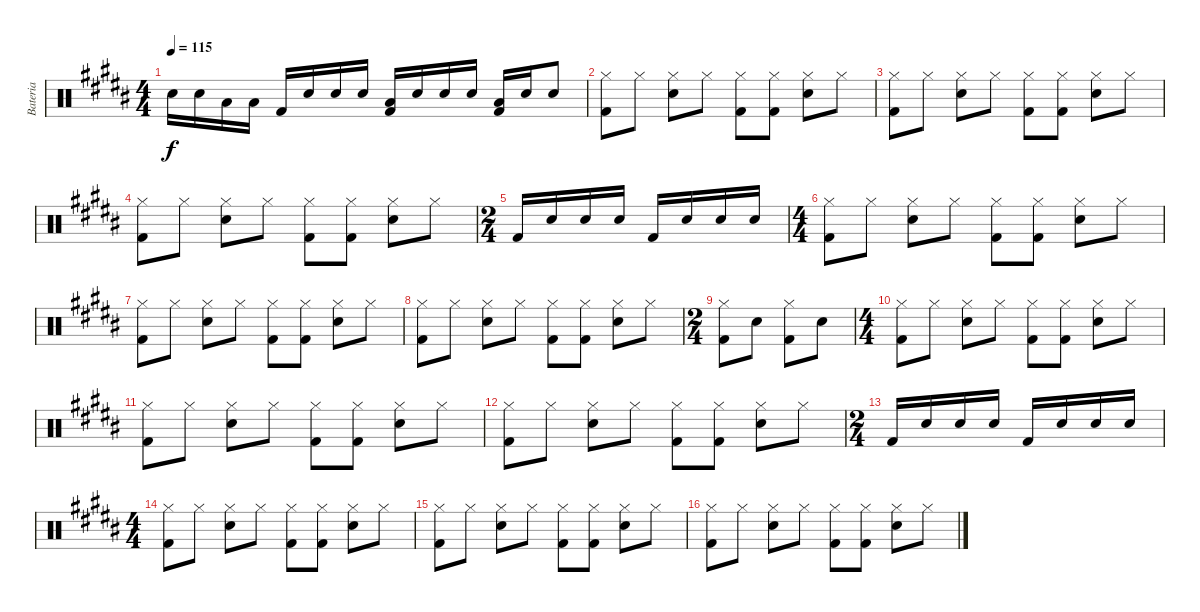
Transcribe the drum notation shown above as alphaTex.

\track ("Bateria" "Bateria") {instrument percussion}
\staff {score}
\articulation defaults
\ts (4 4)
\tempo 115
\clef neutral
\ks b "Snare (hit) 2".16{dy f} "Snare (hit) 2".16 "Low Tom (hit)".16 "Low Tom (hit)".16 "Kick (hit) 2".16 "Snare (hit) 2".16 "Snare (hit) 2".16 "Snare (hit) 2".16
("Low Tom (hit)" "Kick (hit) 2").16 "Snare (hit) 2".16 "Snare (hit) 2".16 "Snare (hit) 2".16 ("Low Tom (hit)" "Kick (hit) 2").16 "Snare (hit) 2".16 "Snare (hit) 2".8 |
("Hi-Hat (closed)" "Kick (hit) 2").8 "Hi-Hat (closed)".8 ("Hi-Hat (closed)" "Snare (hit) 2").8 "Hi-Hat (closed)".8 ("Hi-Hat (closed)" "Kick (hit) 2").8 ("Hi-Hat (closed)" "Kick (hit) 2").8 ("Hi-Hat (closed)" "Snare (hit) 2").8 "Hi-Hat (closed)".8 |
("Hi-Hat (closed)" "Kick (hit) 2").8 "Hi-Hat (closed)".8 ("Hi-Hat (closed)" "Snare (hit) 2").8 "Hi-Hat (closed)".8 ("Hi-Hat (closed)" "Kick (hit) 2").8 ("Hi-Hat (closed)" "Kick (hit) 2").8 ("Hi-Hat (closed)" "Snare (hit) 2").8 "Hi-Hat (closed)".8 |
("Hi-Hat (closed)" "Kick (hit) 2").8 "Hi-Hat (closed)".8 ("Hi-Hat (closed)" "Snare (hit) 2").8 "Hi-Hat (closed)".8 ("Hi-Hat (closed)" "Kick (hit) 2").8 ("Hi-Hat (closed)" "Kick (hit) 2").8 ("Hi-Hat (closed)" "Snare (hit) 2").8 "Hi-Hat (closed)".8 |
\ts (2 4)
"Kick (hit) 2".16 "Snare (hit) 2".16 "Snare (hit) 2".16 "Snare (hit) 2".16 "Kick (hit) 2".16 "Snare (hit) 2".16 "Snare (hit) 2".16 "Snare (hit) 2".16 |
\ts (4 4)
("Hi-Hat (closed)" "Kick (hit) 2").8 "Hi-Hat (closed)".8 ("Hi-Hat (closed)" "Snare (hit) 2").8 "Hi-Hat (closed)".8 ("Hi-Hat (closed)" "Kick (hit) 2").8 ("Hi-Hat (closed)" "Kick (hit) 2").8 ("Hi-Hat (closed)" "Snare (hit) 2").8 "Hi-Hat (closed)".8 |
("Hi-Hat (closed)" "Kick (hit) 2").8 "Hi-Hat (closed)".8 ("Hi-Hat (closed)" "Snare (hit) 2").8 "Hi-Hat (closed)".8 ("Hi-Hat (closed)" "Kick (hit) 2").8 ("Hi-Hat (closed)" "Kick (hit) 2").8 ("Hi-Hat (closed)" "Snare (hit) 2").8 "Hi-Hat (closed)".8 |
("Hi-Hat (closed)" "Kick (hit) 2").8 "Hi-Hat (closed)".8 ("Hi-Hat (closed)" "Snare (hit) 2").8 "Hi-Hat (closed)".8 ("Hi-Hat (closed)" "Kick (hit) 2").8 ("Hi-Hat (closed)" "Kick (hit) 2").8 ("Hi-Hat (closed)" "Snare (hit) 2").8 "Hi-Hat (closed)".8 |
\ts (2 4)
("Hi-Hat (closed)" "Kick (hit) 2").8 "Snare (hit) 2".8 ("Hi-Hat (closed)" "Kick (hit) 2").8 "Snare (hit) 2".8 |
\ts (4 4)
("Hi-Hat (closed)" "Kick (hit) 2").8 "Hi-Hat (closed)".8 ("Hi-Hat (closed)" "Snare (hit) 2").8 "Hi-Hat (closed)".8 ("Hi-Hat (closed)" "Kick (hit) 2").8 ("Hi-Hat (closed)" "Kick (hit) 2").8 ("Hi-Hat (closed)" "Snare (hit) 2").8 "Hi-Hat (closed)".8 |
("Hi-Hat (closed)" "Kick (hit) 2").8 "Hi-Hat (closed)".8 ("Hi-Hat (closed)" "Snare (hit) 2").8 "Hi-Hat (closed)".8 ("Hi-Hat (closed)" "Kick (hit) 2").8 ("Hi-Hat (closed)" "Kick (hit) 2").8 ("Hi-Hat (closed)" "Snare (hit) 2").8 "Hi-Hat (closed)".8 |
("Hi-Hat (closed)" "Kick (hit) 2").8 "Hi-Hat (closed)".8 ("Hi-Hat (closed)" "Snare (hit) 2").8 "Hi-Hat (closed)".8 ("Hi-Hat (closed)" "Kick (hit) 2").8 ("Hi-Hat (closed)" "Kick (hit) 2").8 ("Hi-Hat (closed)" "Snare (hit) 2").8 "Hi-Hat (closed)".8 |
\ts (2 4)
"Kick (hit) 2".16 "Snare (hit) 2".16 "Snare (hit) 2".16 "Snare (hit) 2".16 "Kick (hit) 2".16 "Snare (hit) 2".16 "Snare (hit) 2".16 "Snare (hit) 2".16 |
\ts (4 4)
("Hi-Hat (closed)" "Kick (hit) 2").8 "Hi-Hat (closed)".8 ("Hi-Hat (closed)" "Snare (hit) 2").8 "Hi-Hat (closed)".8 ("Hi-Hat (closed)" "Kick (hit) 2").8 ("Hi-Hat (closed)" "Kick (hit) 2").8 ("Hi-Hat (closed)" "Snare (hit) 2").8 "Hi-Hat (closed)".8 |
("Hi-Hat (closed)" "Kick (hit) 2").8 "Hi-Hat (closed)".8 ("Hi-Hat (closed)" "Snare (hit) 2").8 "Hi-Hat (closed)".8 ("Hi-Hat (closed)" "Kick (hit) 2").8 ("Hi-Hat (closed)" "Kick (hit) 2").8 ("Hi-Hat (closed)" "Snare (hit) 2").8 "Hi-Hat (closed)".8 |
("Hi-Hat (closed)" "Kick (hit) 2").8 "Hi-Hat (closed)".8 ("Hi-Hat (closed)" "Snare (hit) 2").8 "Hi-Hat (closed)".8 ("Hi-Hat (closed)" "Kick (hit) 2").8 ("Hi-Hat (closed)" "Kick (hit) 2").8 ("Hi-Hat (closed)" "Snare (hit) 2").8 "Hi-Hat (closed)".8
